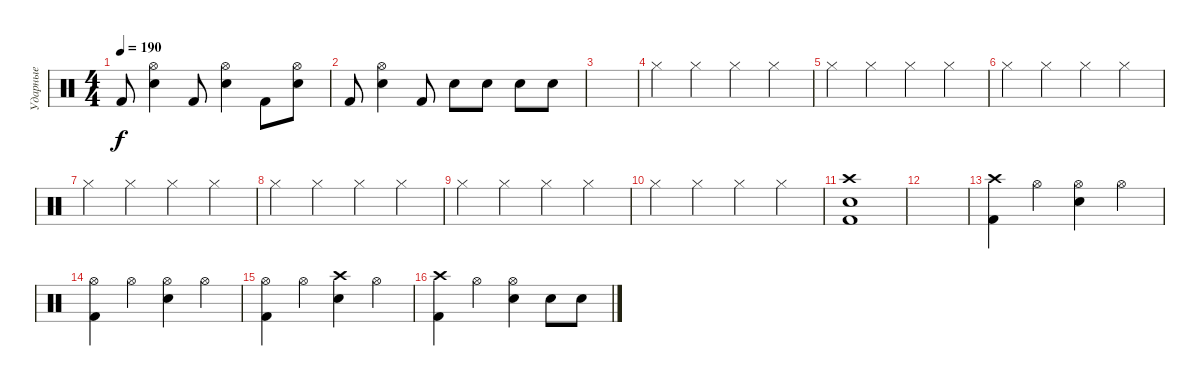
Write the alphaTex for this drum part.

\track ("Ударные" "Ударные") {instrument percussion}
\staff {score}
\articulation defaults
\ts (4 4)
\tempo 190
\clef neutral
\ks c "Kick (hit) 2".8{dy f}
("Hi-Hat (open)" "Electric Snare (hit)").4 "Kick (hit) 2".8 ("Hi-Hat (open)" "Electric Snare (hit)").4 "Kick (hit) 2".8 ("Hi-Hat (open)" "Electric Snare (hit)").8 |
"Kick (hit) 2".8 ("Hi-Hat (open)" "Electric Snare (hit)").4 "Kick (hit) 2".8 "Electric Snare (hit)".8 "Electric Snare (hit)".8 "Electric Snare (hit)".8 "Electric Snare (hit)".8 |
|
"Hi-Hat (closed)".4 "Hi-Hat (closed)".4 "Hi-Hat (closed)".4 "Hi-Hat (closed)".4 |
"Hi-Hat (closed)".4 "Hi-Hat (closed)".4 "Hi-Hat (closed)".4 "Hi-Hat (closed)".4 |
"Hi-Hat (closed)".4 "Hi-Hat (closed)".4 "Hi-Hat (closed)".4 "Hi-Hat (closed)".4 |
"Hi-Hat (closed)".4 "Hi-Hat (closed)".4 "Hi-Hat (closed)".4 "Hi-Hat (closed)".4 |
"Hi-Hat (closed)".4 "Hi-Hat (closed)".4 "Hi-Hat (closed)".4 "Hi-Hat (closed)".4 |
"Hi-Hat (closed)".4 "Hi-Hat (closed)".4 "Hi-Hat (closed)".4 "Hi-Hat (closed)".4 |
"Hi-Hat (closed)".4 "Hi-Hat (closed)".4 "Hi-Hat (closed)".4 "Hi-Hat (closed)".4 |
("Crash high (hit)" "Electric Snare (hit)" "Kick (hit) 2").1 |
|
("Crash high (hit)" "Kick (hit) 2").4 "Hi-Hat (open)".4 ("Hi-Hat (open)" "Electric Snare (hit)").4 "Hi-Hat (open)".4 |
("Hi-Hat (open)" "Kick (hit) 2").4 "Hi-Hat (open)".4 ("Hi-Hat (open)" "Electric Snare (hit)").4 "Hi-Hat (open)".4 |
("Hi-Hat (open)" "Kick (hit) 2").4 "Hi-Hat (open)".4 ("Crash high (hit)" "Electric Snare (hit)").4 "Hi-Hat (open)".4 |
("Crash high (hit)" "Kick (hit) 2").4 "Hi-Hat (open)".4 ("Hi-Hat (open)" "Electric Snare (hit)").4 "Electric Snare (hit)".8 "Electric Snare (hit)".8
